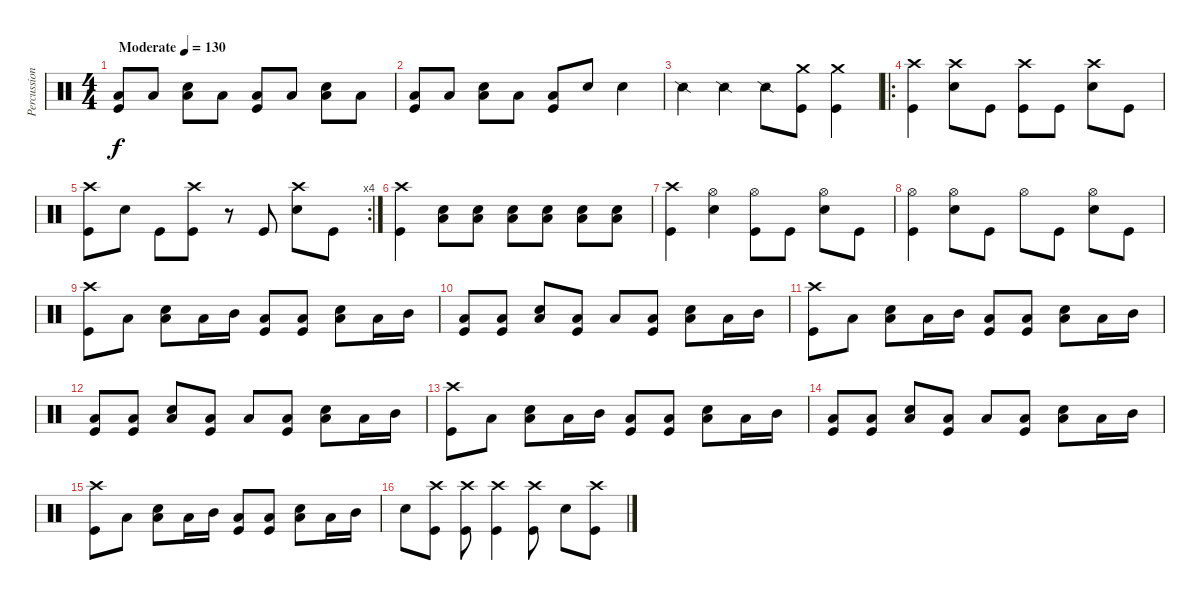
\track ("Percussion" "Percussion") {instrument percussion}
\staff {score}
\articulation defaults
\ts (4 4)
\tempo (130 "Moderate")
\clef neutral
\ks c
("Low Floor Tom (hit)" "Kick (hit)").8{dy f} "Low Floor Tom (hit)".8 ("Low Floor Tom (hit)" "Electric Snare (hit)").8 "Low Floor Tom (hit)".8 ("Low Floor Tom (hit)" "Kick (hit)").8 "Low Floor Tom (hit)".8 ("Low Floor Tom (hit)" "Electric Snare (hit)").8 "Low Floor Tom (hit)".8 |
("Low Floor Tom (hit)" "Kick (hit)").8 "Low Floor Tom (hit)".8 ("Low Floor Tom (hit)" "Electric Snare (hit)").8 "Low Floor Tom (hit)".8 ("Low Floor Tom (hit)" "Kick (hit)").8 "Electric Snare (hit)".8 "Electric Snare (hit)".4 |
"Snare (side stick) 2".4 "Snare (side stick) 2".4 "Snare (side stick) 2".8 ("Crash medium (hit)" "Kick (hit)").8 ("Crash medium (hit)" "Kick (hit)").4 |
\ro
("Crash high (hit)" "Kick (hit)").4 ("Crash high (hit)" "Electric Snare (hit)").8 "Kick (hit)".8 ("Crash high (hit)" "Kick (hit)").8 "Kick (hit)".8 ("Crash high (hit)" "Electric Snare (hit)").8 "Kick (hit)".8 |
\rc 4
("Crash high (hit)" "Kick (hit)").8 "Electric Snare (hit)".8 "Kick (hit)".8 ("Crash high (hit)" "Kick (hit)").8 r.8 "Kick (hit)".8 ("Crash high (hit)" "Electric Snare (hit)").8 "Kick (hit)".8 |
("Crash high (hit)" "Kick (hit)").4 ("Low Floor Tom (hit)" "Electric Snare (hit)").8 ("Low Floor Tom (hit)" "Electric Snare (hit)").8 ("Low Floor Tom (hit)" "Electric Snare (hit)").8 ("Low Floor Tom (hit)" "Electric Snare (hit)").8 ("Low Floor Tom (hit)" "Electric Snare (hit)").8 ("Low Floor Tom (hit)" "Electric Snare (hit)").8 |
("Crash high (hit)" "Kick (hit)").4 ("Hi-Hat (open)" "Electric Snare (hit)").4 ("Hi-Hat (open)" "Kick (hit)").8 "Kick (hit)".8 ("Hi-Hat (open)" "Electric Snare (hit)").8 "Kick (hit)".8 |
("Hi-Hat (open)" "Kick (hit)").4 ("Hi-Hat (open)" "Electric Snare (hit)").8 "Kick (hit)".8 "Hi-Hat (open)".8 "Kick (hit)".8 ("Hi-Hat (open)" "Electric Snare (hit)").8 "Kick (hit)".8 |
("Crash high (hit)" "Kick (hit)").8 "Low Floor Tom (hit)".8 ("Low Floor Tom (hit)" "Electric Snare (hit)").8 "Low Floor Tom (hit)".16 "Mid Tom (hit)".16 ("Low Floor Tom (hit)" "Kick (hit)").8 ("Low Floor Tom (hit)" "Kick (hit)").8 ("Low Floor Tom (hit)" "Electric Snare (hit)").8 "Low Floor Tom (hit)".16 "Mid Tom (hit)".16 |
("Low Floor Tom (hit)" "Kick (hit)").8 ("Low Floor Tom (hit)" "Kick (hit)").8 ("Low Floor Tom (hit)" "Electric Snare (hit)").8 ("Low Floor Tom (hit)" "Kick (hit)").8 "Low Floor Tom (hit)".8 ("Low Floor Tom (hit)" "Kick (hit)").8 ("Low Floor Tom (hit)" "Electric Snare (hit)").8 "Low Floor Tom (hit)".16 "Mid Tom (hit)".16 |
("Crash high (hit)" "Kick (hit)").8 "Low Floor Tom (hit)".8 ("Low Floor Tom (hit)" "Electric Snare (hit)").8 "Low Floor Tom (hit)".16 "Mid Tom (hit)".16 ("Low Floor Tom (hit)" "Kick (hit)").8 ("Low Floor Tom (hit)" "Kick (hit)").8 ("Low Floor Tom (hit)" "Electric Snare (hit)").8 "Low Floor Tom (hit)".16 "Mid Tom (hit)".16 |
("Low Floor Tom (hit)" "Kick (hit)").8 ("Low Floor Tom (hit)" "Kick (hit)").8 ("Low Floor Tom (hit)" "Electric Snare (hit)").8 ("Low Floor Tom (hit)" "Kick (hit)").8 "Low Floor Tom (hit)".8 ("Low Floor Tom (hit)" "Kick (hit)").8 ("Low Floor Tom (hit)" "Electric Snare (hit)").8 "Low Floor Tom (hit)".16 "Mid Tom (hit)".16 |
("Crash high (hit)" "Kick (hit)").8 "Low Floor Tom (hit)".8 ("Low Floor Tom (hit)" "Electric Snare (hit)").8 "Low Floor Tom (hit)".16 "Mid Tom (hit)".16 ("Low Floor Tom (hit)" "Kick (hit)").8 ("Low Floor Tom (hit)" "Kick (hit)").8 ("Low Floor Tom (hit)" "Electric Snare (hit)").8 "Low Floor Tom (hit)".16 "Mid Tom (hit)".16 |
("Low Floor Tom (hit)" "Kick (hit)").8 ("Low Floor Tom (hit)" "Kick (hit)").8 ("Low Floor Tom (hit)" "Electric Snare (hit)").8 ("Low Floor Tom (hit)" "Kick (hit)").8 "Low Floor Tom (hit)".8 ("Low Floor Tom (hit)" "Kick (hit)").8 ("Low Floor Tom (hit)" "Electric Snare (hit)").8 "Low Floor Tom (hit)".16 "Mid Tom (hit)".16 |
("Crash high (hit)" "Kick (hit)").8 "Low Floor Tom (hit)".8 ("Low Floor Tom (hit)" "Electric Snare (hit)").8 "Low Floor Tom (hit)".16 "Mid Tom (hit)".16 ("Low Floor Tom (hit)" "Kick (hit)").8 ("Low Floor Tom (hit)" "Kick (hit)").8 ("Low Floor Tom (hit)" "Electric Snare (hit)").8 "Low Floor Tom (hit)".16 "Mid Tom (hit)".16 |
"Electric Snare (hit)".8 ("Crash high (hit)" "Kick (hit)").8 ("Crash high (hit)" "Kick (hit)").8 ("Crash high (hit)" "Kick (hit)").4 ("Crash high (hit)" "Kick (hit)").8 "Electric Snare (hit)".8 ("Crash high (hit)" "Kick (hit)").8
